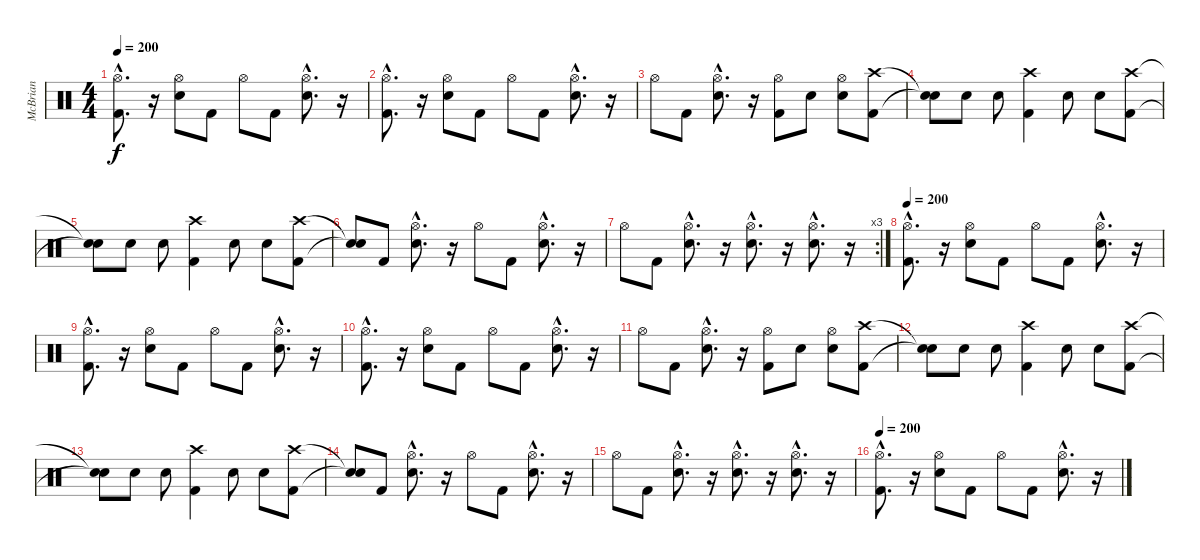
\track ("McBrian" "McBrian") {instrument percussion}
\staff {score}
\articulation defaults
\ts (4 4)
\tempo 200
\clef neutral
\ks c
("Hi-Hat (open)"{hac} "Kick (hit) 2"{hac}).8{d dy f} r.16 ("Snare (hit) 2" "Hi-Hat (open)").8 "Kick (hit) 2".8 "Hi-Hat (open)".8 "Kick (hit) 2".8 ("Hi-Hat (open)"{hac} "Snare (hit) 2"{hac}).8{d} r.16 |
("Hi-Hat (open)"{hac} "Kick (hit) 2"{hac}).8{d} r.16 ("Snare (hit) 2" "Hi-Hat (open)").8 "Kick (hit) 2".8 "Hi-Hat (open)".8 "Kick (hit) 2".8 ("Hi-Hat (open)"{hac} "Snare (hit) 2"{hac}).8{d} r.16 |
"Hi-Hat (open)".8 "Kick (hit) 2".8 ("Hi-Hat (open)"{hac} "Snare (hit) 2"{hac}).8{d} r.16 ("Hi-Hat (open)" "Kick (hit) 2").8 "Snare (hit) 2".8 ("Snare (hit) 2" "Hi-Hat (open)").8 ("Crash high (hit)" "Kick (hit) 2").8 |
("Snare (hit)"{t} "Snare (hit)"{t}).8 "Snare (hit) 2".8 "Snare (hit) 2".8 ("Kick (hit) 2" "Crash high (hit)").4 "Snare (hit) 2".8 "Snare (hit) 2".8 ("Crash high (hit)" "Kick (hit) 2").8 |
("Snare (hit)"{t} "Snare (hit)"{t}).8 "Snare (hit) 2".8 "Snare (hit) 2".8 ("Kick (hit) 2" "Crash high (hit)").4 "Snare (hit) 2".8 "Snare (hit) 2".8 ("Crash high (hit)" "Kick (hit) 2").8 |
("Snare (hit)"{t} "Snare (hit)"{t}).8 "Kick (hit) 2".8 ("Hi-Hat (open)"{hac} "Snare (hit) 2"{hac}).8{d} r.16 "Hi-Hat (open)".8 "Kick (hit) 2".8 ("Hi-Hat (open)"{hac} "Snare (hit) 2"{hac}).8{d} r.16 |
\rc 3 "Hi-Hat (open)".8 "Kick (hit) 2".8
("Snare (hit) 2"{hac} "Hi-Hat (open)"{hac}).8{d} r.16 ("Hi-Hat (open)"{hac} "Snare (hit) 2"{hac}).8{d} r.16 ("Snare (hit) 2"{hac} "Hi-Hat (open)"{hac}).8{d} r.16 |
\tempo 200
("Hi-Hat (open)"{hac} "Kick (hit) 2"{hac}).8{d} r.16 ("Snare (hit) 2" "Hi-Hat (open)").8 "Kick (hit) 2".8 "Hi-Hat (open)".8 "Kick (hit) 2".8 ("Hi-Hat (open)"{hac} "Snare (hit) 2"{hac}).8{d} r.16 |
("Hi-Hat (open)"{hac} "Kick (hit) 2"{hac}).8{d} r.16 ("Snare (hit) 2" "Hi-Hat (open)").8 "Kick (hit) 2".8 "Hi-Hat (open)".8 "Kick (hit) 2".8 ("Hi-Hat (open)"{hac} "Snare (hit) 2"{hac}).8{d} r.16 |
("Hi-Hat (open)"{hac} "Kick (hit) 2"{hac}).8{d} r.16 ("Snare (hit) 2" "Hi-Hat (open)").8 "Kick (hit) 2".8 "Hi-Hat (open)".8 "Kick (hit) 2".8 ("Hi-Hat (open)"{hac} "Snare (hit) 2"{hac}).8{d} r.16 |
"Hi-Hat (open)".8 "Kick (hit) 2".8 ("Hi-Hat (open)"{hac} "Snare (hit) 2"{hac}).8{d} r.16 ("Hi-Hat (open)" "Kick (hit) 2").8 "Snare (hit) 2".8 ("Snare (hit) 2" "Hi-Hat (open)").8 ("Crash high (hit)" "Kick (hit) 2").8 |
("Snare (hit)"{t} "Snare (hit)"{t}).8 "Snare (hit) 2".8 "Snare (hit) 2".8 ("Kick (hit) 2" "Crash high (hit)").4 "Snare (hit) 2".8 "Snare (hit) 2".8 ("Crash high (hit)" "Kick (hit) 2").8 |
("Snare (hit)"{t} "Snare (hit)"{t}).8 "Snare (hit) 2".8 "Snare (hit) 2".8 ("Kick (hit) 2" "Crash high (hit)").4 "Snare (hit) 2".8 "Snare (hit) 2".8 ("Crash high (hit)" "Kick (hit) 2").8 |
("Snare (hit)"{t} "Snare (hit)"{t}).8 "Kick (hit) 2".8 ("Hi-Hat (open)"{hac} "Snare (hit) 2"{hac}).8{d} r.16 "Hi-Hat (open)".8 "Kick (hit) 2".8 ("Hi-Hat (open)"{hac} "Snare (hit) 2"{hac}).8{d} r.16 |
"Hi-Hat (open)".8 "Kick (hit) 2".8 ("Snare (hit) 2"{hac} "Hi-Hat (open)"{hac}).8{d} r.16 ("Hi-Hat (open)"{hac} "Snare (hit) 2"{hac}).8{d} r.16 ("Snare (hit) 2"{hac} "Hi-Hat (open)"{hac}).8{d} r.16 |
\tempo 200
("Hi-Hat (open)"{hac} "Kick (hit) 2"{hac}).8{d} r.16 ("Snare (hit) 2" "Hi-Hat (open)").8 "Kick (hit) 2".8 "Hi-Hat (open)".8 "Kick (hit) 2".8 ("Hi-Hat (open)"{hac} "Snare (hit) 2"{hac}).8{d} r.16
